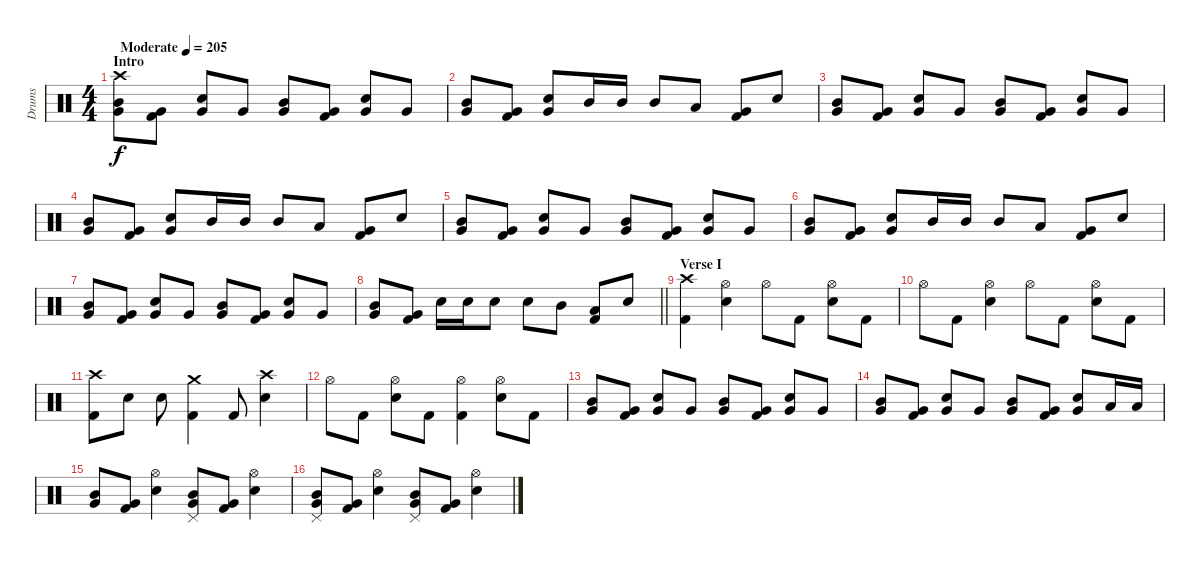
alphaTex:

\track ("Drums" "Drums") {instrument percussion}
\staff {score}
\articulation defaults
\ts (4 4)
\section ("" "Intro")
\tempo (205 "Moderate")
\clef neutral
\ks c
("Crash high (hit)" "Mid Tom (hit)" "Very Low Tom (hit)").8{dy f} ("Very Low Tom (hit)" "Kick (hit) 2").8 ("Electric Snare (hit)" "Very Low Tom (hit)").8 "Very Low Tom (hit)".8 ("Mid Tom (hit)" "Very Low Tom (hit)").8 ("Very Low Tom (hit)" "Kick (hit) 2").8 ("Electric Snare (hit)" "Very Low Tom (hit)").8 "Very Low Tom (hit)".8 |
("Mid Tom (hit)" "Very Low Tom (hit)").8 ("Very Low Tom (hit)" "Kick (hit) 2").8 ("Electric Snare (hit)" "Very Low Tom (hit)").8 "Mid Tom (hit)".16 "Mid Tom (hit)".16 "Mid Tom (hit)".8 "Low Tom (hit)".8 ("Very Low Tom (hit)" "Kick (hit) 2").8 "Electric Snare (hit)".8 |
("Mid Tom (hit)" "Very Low Tom (hit)").8 ("Very Low Tom (hit)" "Kick (hit) 2").8 ("Electric Snare (hit)" "Very Low Tom (hit)").8 "Very Low Tom (hit)".8 ("Mid Tom (hit)" "Very Low Tom (hit)").8 ("Very Low Tom (hit)" "Kick (hit) 2").8 ("Electric Snare (hit)" "Very Low Tom (hit)").8 "Very Low Tom (hit)".8 |
("Mid Tom (hit)" "Very Low Tom (hit)").8 ("Very Low Tom (hit)" "Kick (hit) 2").8 ("Electric Snare (hit)" "Very Low Tom (hit)").8 "Mid Tom (hit)".16 "Mid Tom (hit)".16 "Mid Tom (hit)".8 "Low Tom (hit)".8 ("Very Low Tom (hit)" "Kick (hit) 2").8 "Electric Snare (hit)".8 |
("Mid Tom (hit)" "Very Low Tom (hit)").8 ("Very Low Tom (hit)" "Kick (hit) 2").8 ("Electric Snare (hit)" "Very Low Tom (hit)").8 "Very Low Tom (hit)".8 ("Mid Tom (hit)" "Very Low Tom (hit)").8 ("Very Low Tom (hit)" "Kick (hit) 2").8 ("Electric Snare (hit)" "Very Low Tom (hit)").8 "Very Low Tom (hit)".8 |
("Mid Tom (hit)" "Very Low Tom (hit)").8 ("Very Low Tom (hit)" "Kick (hit) 2").8 ("Electric Snare (hit)" "Very Low Tom (hit)").8 "Mid Tom (hit)".16 "Mid Tom (hit)".16 "Mid Tom (hit)".8 "Low Tom (hit)".8 ("Very Low Tom (hit)" "Kick (hit) 2").8 "Electric Snare (hit)".8 |
("Mid Tom (hit)" "Very Low Tom (hit)").8 ("Very Low Tom (hit)" "Kick (hit) 2").8 ("Electric Snare (hit)" "Very Low Tom (hit)").8 "Very Low Tom (hit)".8 ("Mid Tom (hit)" "Very Low Tom (hit)").8 ("Very Low Tom (hit)" "Kick (hit) 2").8 ("Electric Snare (hit)" "Very Low Tom (hit)").8 "Very Low Tom (hit)".8 |
\barLineRight lightlight
("Mid Tom (hit)" "Very Low Tom (hit)").8 ("Very Low Tom (hit)" "Kick (hit) 2").8 "Electric Snare (hit)".16 "Electric Snare (hit)".16 "Electric Snare (hit)".8 "Electric Snare (hit)".8 "Mid Tom (hit)".8 ("Low Tom (hit)" "Kick (hit) 2").8 "Electric Snare (hit)".8 |
\section ("" "Verse I")
("Crash high (hit)" "Kick (hit) 2").4 ("Hi-Hat (open)" "Electric Snare (hit)").4 "Hi-Hat (open)".8 "Kick (hit) 2".8 ("Hi-Hat (open)" "Electric Snare (hit)").8 "Kick (hit) 2".8 |
"Hi-Hat (open)".8 "Kick (hit) 2".8 ("Hi-Hat (open)" "Electric Snare (hit)").4 "Hi-Hat (open)".8 "Kick (hit) 2".8 ("Hi-Hat (open)" "Electric Snare (hit)").8 "Kick (hit) 2".8 |
("Crash high (hit)" "Kick (hit) 2").8 "Electric Snare (hit)".8 "Electric Snare (hit)".8 ("Crash medium (hit)" "Kick (hit) 2").4 "Kick (hit) 2".8 ("Crash high (hit)" "Electric Snare (hit)").4 |
"Hi-Hat (open)".8 "Kick (hit) 2".8 ("Hi-Hat (open)" "Electric Snare (hit)").8 "Kick (hit) 2".8 ("Hi-Hat (open)" "Kick (hit) 2").4 ("Hi-Hat (open)" "Electric Snare (hit)").8 "Kick (hit) 2".8 |
("Mid Tom (hit)" "Very Low Tom (hit)").8 ("Very Low Tom (hit)" "Kick (hit) 2").8 ("Electric Snare (hit)" "Very Low Tom (hit)").8 "Very Low Tom (hit)".8 ("Mid Tom (hit)" "Very Low Tom (hit)").8 ("Very Low Tom (hit)" "Kick (hit) 2").8 ("Electric Snare (hit)" "Very Low Tom (hit)").8 "Very Low Tom (hit)".8 |
("Mid Tom (hit)" "Very Low Tom (hit)").8 ("Very Low Tom (hit)" "Kick (hit) 2").8 ("Electric Snare (hit)" "Very Low Tom (hit)").8 "Very Low Tom (hit)".8 ("Mid Tom (hit)" "Very Low Tom (hit)").8 ("Very Low Tom (hit)" "Kick (hit) 2").8 ("Electric Snare (hit)" "Very Low Tom (hit)").8 "Low Tom (hit)".16 "Low Tom (hit)".16 |
("Mid Tom (hit)" "Very Low Tom (hit)").8 ("Very Low Tom (hit)" "Kick (hit) 2").8 ("Hi-Hat (open)" "Electric Snare (hit)").4 ("Pedal Hi-Hat (hit)" "Mid Tom (hit)" "Very Low Tom (hit)").8 ("Very Low Tom (hit)" "Kick (hit) 2").8 ("Hi-Hat (open)" "Electric Snare (hit)").4 |
("Pedal Hi-Hat (hit)" "Mid Tom (hit)" "Very Low Tom (hit)").8 ("Very Low Tom (hit)" "Kick (hit) 2").8 ("Hi-Hat (open)" "Electric Snare (hit)").4 ("Pedal Hi-Hat (hit)" "Mid Tom (hit)" "Very Low Tom (hit)").8 ("Very Low Tom (hit)" "Kick (hit) 2").8 ("Hi-Hat (open)" "Electric Snare (hit)").4
